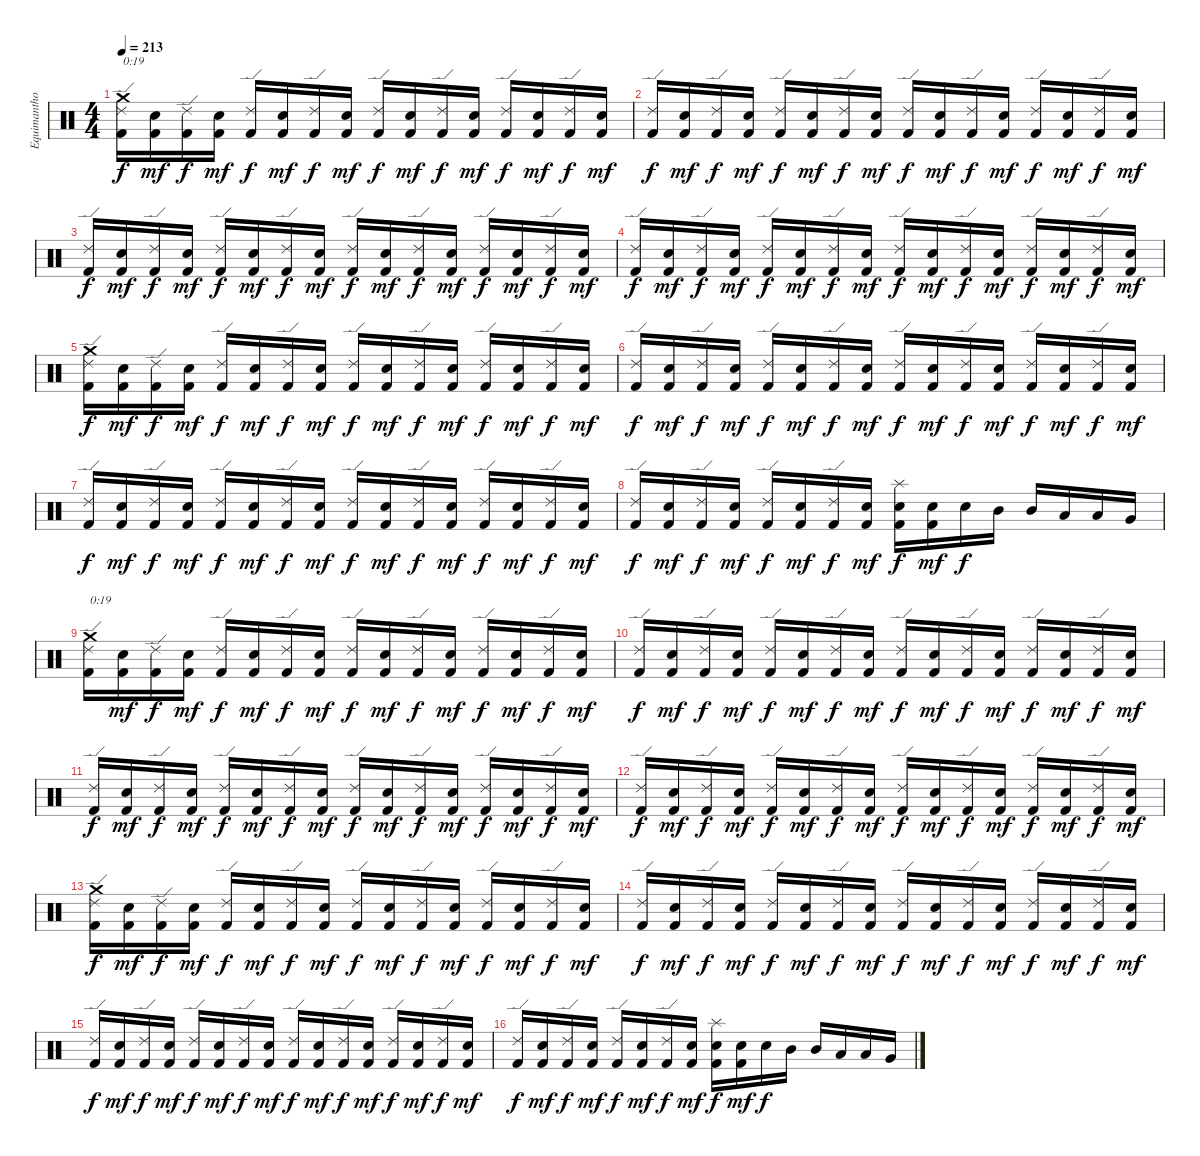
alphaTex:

\track ("Equimanthorn" "Equimantho") {instrument percussion}
\staff {score}
\articulation defaults
\ts (4 4)
\tempo 213
\clef neutral
\ks c
("Kick (hit) 2" "Ride (edge) 2" "Crash medium (hit)").16{txt "0:19" dy f} ("Kick (hit) 2" "Electric Snare (hit)").16{dy mf} ("Kick (hit) 2" "Ride (edge) 2").16{dy f} ("Kick (hit) 2" "Electric Snare (hit)").16{dy mf} ("Kick (hit) 2" "Ride (edge) 2").16{dy f} ("Kick (hit) 2" "Electric Snare (hit)").16{dy mf} ("Kick (hit) 2" "Ride (edge) 2").16{dy f} ("Kick (hit) 2" "Electric Snare (hit)").16{dy mf} ("Kick (hit) 2" "Ride (edge) 2").16{dy f} ("Kick (hit) 2" "Electric Snare (hit)").16{dy mf} ("Kick (hit) 2" "Ride (edge) 2").16{dy f} ("Kick (hit) 2" "Electric Snare (hit)").16{dy mf} ("Kick (hit) 2" "Ride (edge) 2").16{dy f} ("Kick (hit) 2" "Electric Snare (hit)").16{dy mf} ("Kick (hit) 2" "Ride (edge) 2").16{dy f} ("Kick (hit) 2" "Electric Snare (hit)").16{dy mf} |
("Kick (hit) 2" "Ride (edge) 2").16{dy f} ("Kick (hit) 2" "Electric Snare (hit)").16{dy mf} ("Kick (hit) 2" "Ride (edge) 2").16{dy f} ("Kick (hit) 2" "Electric Snare (hit)").16{dy mf} ("Kick (hit) 2" "Ride (edge) 2").16{dy f} ("Kick (hit) 2" "Electric Snare (hit)").16{dy mf} ("Kick (hit) 2" "Ride (edge) 2").16{dy f} ("Kick (hit) 2" "Electric Snare (hit)").16{dy mf} ("Kick (hit) 2" "Ride (edge) 2").16{dy f} ("Kick (hit) 2" "Electric Snare (hit)").16{dy mf} ("Kick (hit) 2" "Ride (edge) 2").16{dy f} ("Kick (hit) 2" "Electric Snare (hit)").16{dy mf} ("Kick (hit) 2" "Ride (edge) 2").16{dy f} ("Kick (hit) 2" "Electric Snare (hit)").16{dy mf} ("Kick (hit) 2" "Ride (edge) 2").16{dy f} ("Kick (hit) 2" "Electric Snare (hit)").16{dy mf} |
("Kick (hit) 2" "Ride (edge) 2").16{dy f} ("Kick (hit) 2" "Electric Snare (hit)").16{dy mf} ("Kick (hit) 2" "Ride (edge) 2").16{dy f} ("Kick (hit) 2" "Electric Snare (hit)").16{dy mf} ("Kick (hit) 2" "Ride (edge) 2").16{dy f} ("Kick (hit) 2" "Electric Snare (hit)").16{dy mf} ("Kick (hit) 2" "Ride (edge) 2").16{dy f} ("Kick (hit) 2" "Electric Snare (hit)").16{dy mf} ("Kick (hit) 2" "Ride (edge) 2").16{dy f} ("Kick (hit) 2" "Electric Snare (hit)").16{dy mf} ("Kick (hit) 2" "Ride (edge) 2").16{dy f} ("Kick (hit) 2" "Electric Snare (hit)").16{dy mf} ("Kick (hit) 2" "Ride (edge) 2").16{dy f} ("Kick (hit) 2" "Electric Snare (hit)").16{dy mf} ("Kick (hit) 2" "Ride (edge) 2").16{dy f} ("Kick (hit) 2" "Electric Snare (hit)").16{dy mf} |
("Kick (hit) 2" "Ride (edge) 2").16{dy f} ("Kick (hit) 2" "Electric Snare (hit)").16{dy mf} ("Kick (hit) 2" "Ride (edge) 2").16{dy f} ("Kick (hit) 2" "Electric Snare (hit)").16{dy mf} ("Kick (hit) 2" "Ride (edge) 2").16{dy f} ("Kick (hit) 2" "Electric Snare (hit)").16{dy mf} ("Kick (hit) 2" "Ride (edge) 2").16{dy f} ("Kick (hit) 2" "Electric Snare (hit)").16{dy mf} ("Kick (hit) 2" "Ride (edge) 2").16{dy f} ("Kick (hit) 2" "Electric Snare (hit)").16{dy mf} ("Kick (hit) 2" "Ride (edge) 2").16{dy f} ("Kick (hit) 2" "Electric Snare (hit)").16{dy mf} ("Kick (hit) 2" "Ride (edge) 2").16{dy f} ("Kick (hit) 2" "Electric Snare (hit)").16{dy mf} ("Kick (hit) 2" "Ride (edge) 2").16{dy f} ("Kick (hit) 2" "Electric Snare (hit)").16{dy mf} |
("Kick (hit) 2" "Ride (edge) 2" "Crash medium (hit)").16{dy f} ("Kick (hit) 2" "Electric Snare (hit)").16{dy mf} ("Kick (hit) 2" "Ride (edge) 2").16{dy f} ("Kick (hit) 2" "Electric Snare (hit)").16{dy mf} ("Kick (hit) 2" "Ride (edge) 2").16{dy f} ("Kick (hit) 2" "Electric Snare (hit)").16{dy mf} ("Kick (hit) 2" "Ride (edge) 2").16{dy f} ("Kick (hit) 2" "Electric Snare (hit)").16{dy mf} ("Kick (hit) 2" "Ride (edge) 2").16{dy f} ("Kick (hit) 2" "Electric Snare (hit)").16{dy mf} ("Kick (hit) 2" "Ride (edge) 2").16{dy f} ("Kick (hit) 2" "Electric Snare (hit)").16{dy mf} ("Kick (hit) 2" "Ride (edge) 2").16{dy f} ("Kick (hit) 2" "Electric Snare (hit)").16{dy mf} ("Kick (hit) 2" "Ride (edge) 2").16{dy f} ("Kick (hit) 2" "Electric Snare (hit)").16{dy mf} |
("Kick (hit) 2" "Ride (edge) 2").16{dy f} ("Kick (hit) 2" "Electric Snare (hit)").16{dy mf} ("Kick (hit) 2" "Ride (edge) 2").16{dy f} ("Kick (hit) 2" "Electric Snare (hit)").16{dy mf} ("Kick (hit) 2" "Ride (edge) 2").16{dy f} ("Kick (hit) 2" "Electric Snare (hit)").16{dy mf} ("Kick (hit) 2" "Ride (edge) 2").16{dy f} ("Kick (hit) 2" "Electric Snare (hit)").16{dy mf} ("Kick (hit) 2" "Ride (edge) 2").16{dy f} ("Kick (hit) 2" "Electric Snare (hit)").16{dy mf} ("Kick (hit) 2" "Ride (edge) 2").16{dy f} ("Kick (hit) 2" "Electric Snare (hit)").16{dy mf} ("Kick (hit) 2" "Ride (edge) 2").16{dy f} ("Kick (hit) 2" "Electric Snare (hit)").16{dy mf} ("Kick (hit) 2" "Ride (edge) 2").16{dy f} ("Kick (hit) 2" "Electric Snare (hit)").16{dy mf} |
("Kick (hit) 2" "Ride (edge) 2").16{dy f} ("Kick (hit) 2" "Electric Snare (hit)").16{dy mf} ("Kick (hit) 2" "Ride (edge) 2").16{dy f} ("Kick (hit) 2" "Electric Snare (hit)").16{dy mf} ("Kick (hit) 2" "Ride (edge) 2").16{dy f} ("Kick (hit) 2" "Electric Snare (hit)").16{dy mf} ("Kick (hit) 2" "Ride (edge) 2").16{dy f} ("Kick (hit) 2" "Electric Snare (hit)").16{dy mf} ("Kick (hit) 2" "Ride (edge) 2").16{dy f} ("Kick (hit) 2" "Electric Snare (hit)").16{dy mf} ("Kick (hit) 2" "Ride (edge) 2").16{dy f} ("Kick (hit) 2" "Electric Snare (hit)").16{dy mf} ("Kick (hit) 2" "Ride (edge) 2").16{dy f} ("Kick (hit) 2" "Electric Snare (hit)").16{dy mf} ("Kick (hit) 2" "Ride (edge) 2").16{dy f} ("Kick (hit) 2" "Electric Snare (hit)").16{dy mf} |
("Kick (hit) 2" "Ride (edge) 2").16{dy f} ("Kick (hit) 2" "Electric Snare (hit)").16{dy mf} ("Kick (hit) 2" "Ride (edge) 2").16{dy f} ("Kick (hit) 2" "Electric Snare (hit)").16{dy mf} ("Kick (hit) 2" "Ride (edge) 2").16{dy f} ("Kick (hit) 2" "Electric Snare (hit)").16{dy mf} ("Kick (hit) 2" "Ride (edge) 2").16{dy f} ("Kick (hit) 2" "Electric Snare (hit)").16{dy mf} ("Kick (hit) 2" "Electric Snare (hit)" "Splash (hit)").16{dy f} ("Kick (hit) 2" "Electric Snare (hit)").16{dy mf} "Electric Snare (hit)".16{dy f} "Mid Tom (hit)".16 "Mid Tom (hit)".16 "Low Tom (hit)".16 "Low Tom (hit)".16 "Very Low Tom (hit)".16 |
("Kick (hit) 2" "Ride (edge) 2" "Crash medium (hit)").16{txt "0:19"} ("Kick (hit) 2" "Electric Snare (hit)").16{dy mf} ("Kick (hit) 2" "Ride (edge) 2").16{dy f} ("Kick (hit) 2" "Electric Snare (hit)").16{dy mf} ("Kick (hit) 2" "Ride (edge) 2").16{dy f} ("Kick (hit) 2" "Electric Snare (hit)").16{dy mf} ("Kick (hit) 2" "Ride (edge) 2").16{dy f} ("Kick (hit) 2" "Electric Snare (hit)").16{dy mf} ("Kick (hit) 2" "Ride (edge) 2").16{dy f} ("Kick (hit) 2" "Electric Snare (hit)").16{dy mf} ("Kick (hit) 2" "Ride (edge) 2").16{dy f} ("Kick (hit) 2" "Electric Snare (hit)").16{dy mf} ("Kick (hit) 2" "Ride (edge) 2").16{dy f} ("Kick (hit) 2" "Electric Snare (hit)").16{dy mf} ("Kick (hit) 2" "Ride (edge) 2").16{dy f} ("Kick (hit) 2" "Electric Snare (hit)").16{dy mf} |
("Kick (hit) 2" "Ride (edge) 2").16{dy f} ("Kick (hit) 2" "Electric Snare (hit)").16{dy mf} ("Kick (hit) 2" "Ride (edge) 2").16{dy f} ("Kick (hit) 2" "Electric Snare (hit)").16{dy mf} ("Kick (hit) 2" "Ride (edge) 2").16{dy f} ("Kick (hit) 2" "Electric Snare (hit)").16{dy mf} ("Kick (hit) 2" "Ride (edge) 2").16{dy f} ("Kick (hit) 2" "Electric Snare (hit)").16{dy mf} ("Kick (hit) 2" "Ride (edge) 2").16{dy f} ("Kick (hit) 2" "Electric Snare (hit)").16{dy mf} ("Kick (hit) 2" "Ride (edge) 2").16{dy f} ("Kick (hit) 2" "Electric Snare (hit)").16{dy mf} ("Kick (hit) 2" "Ride (edge) 2").16{dy f} ("Kick (hit) 2" "Electric Snare (hit)").16{dy mf} ("Kick (hit) 2" "Ride (edge) 2").16{dy f} ("Kick (hit) 2" "Electric Snare (hit)").16{dy mf} |
("Kick (hit) 2" "Ride (edge) 2").16{dy f} ("Kick (hit) 2" "Electric Snare (hit)").16{dy mf} ("Kick (hit) 2" "Ride (edge) 2").16{dy f} ("Kick (hit) 2" "Electric Snare (hit)").16{dy mf} ("Kick (hit) 2" "Ride (edge) 2").16{dy f} ("Kick (hit) 2" "Electric Snare (hit)").16{dy mf} ("Kick (hit) 2" "Ride (edge) 2").16{dy f} ("Kick (hit) 2" "Electric Snare (hit)").16{dy mf} ("Kick (hit) 2" "Ride (edge) 2").16{dy f} ("Kick (hit) 2" "Electric Snare (hit)").16{dy mf} ("Kick (hit) 2" "Ride (edge) 2").16{dy f} ("Kick (hit) 2" "Electric Snare (hit)").16{dy mf} ("Kick (hit) 2" "Ride (edge) 2").16{dy f} ("Kick (hit) 2" "Electric Snare (hit)").16{dy mf} ("Kick (hit) 2" "Ride (edge) 2").16{dy f} ("Kick (hit) 2" "Electric Snare (hit)").16{dy mf} |
("Kick (hit) 2" "Ride (edge) 2").16{dy f} ("Kick (hit) 2" "Electric Snare (hit)").16{dy mf} ("Kick (hit) 2" "Ride (edge) 2").16{dy f} ("Kick (hit) 2" "Electric Snare (hit)").16{dy mf} ("Kick (hit) 2" "Ride (edge) 2").16{dy f} ("Kick (hit) 2" "Electric Snare (hit)").16{dy mf} ("Kick (hit) 2" "Ride (edge) 2").16{dy f} ("Kick (hit) 2" "Electric Snare (hit)").16{dy mf} ("Kick (hit) 2" "Ride (edge) 2").16{dy f} ("Kick (hit) 2" "Electric Snare (hit)").16{dy mf} ("Kick (hit) 2" "Ride (edge) 2").16{dy f} ("Kick (hit) 2" "Electric Snare (hit)").16{dy mf} ("Kick (hit) 2" "Ride (edge) 2").16{dy f} ("Kick (hit) 2" "Electric Snare (hit)").16{dy mf} ("Kick (hit) 2" "Ride (edge) 2").16{dy f} ("Kick (hit) 2" "Electric Snare (hit)").16{dy mf} |
("Kick (hit) 2" "Ride (edge) 2" "Crash medium (hit)").16{dy f} ("Kick (hit) 2" "Electric Snare (hit)").16{dy mf} ("Kick (hit) 2" "Ride (edge) 2").16{dy f} ("Kick (hit) 2" "Electric Snare (hit)").16{dy mf} ("Kick (hit) 2" "Ride (edge) 2").16{dy f} ("Kick (hit) 2" "Electric Snare (hit)").16{dy mf} ("Kick (hit) 2" "Ride (edge) 2").16{dy f} ("Kick (hit) 2" "Electric Snare (hit)").16{dy mf} ("Kick (hit) 2" "Ride (edge) 2").16{dy f} ("Kick (hit) 2" "Electric Snare (hit)").16{dy mf} ("Kick (hit) 2" "Ride (edge) 2").16{dy f} ("Kick (hit) 2" "Electric Snare (hit)").16{dy mf} ("Kick (hit) 2" "Ride (edge) 2").16{dy f} ("Kick (hit) 2" "Electric Snare (hit)").16{dy mf} ("Kick (hit) 2" "Ride (edge) 2").16{dy f} ("Kick (hit) 2" "Electric Snare (hit)").16{dy mf} |
("Kick (hit) 2" "Ride (edge) 2").16{dy f} ("Kick (hit) 2" "Electric Snare (hit)").16{dy mf} ("Kick (hit) 2" "Ride (edge) 2").16{dy f} ("Kick (hit) 2" "Electric Snare (hit)").16{dy mf} ("Kick (hit) 2" "Ride (edge) 2").16{dy f} ("Kick (hit) 2" "Electric Snare (hit)").16{dy mf} ("Kick (hit) 2" "Ride (edge) 2").16{dy f} ("Kick (hit) 2" "Electric Snare (hit)").16{dy mf} ("Kick (hit) 2" "Ride (edge) 2").16{dy f} ("Kick (hit) 2" "Electric Snare (hit)").16{dy mf} ("Kick (hit) 2" "Ride (edge) 2").16{dy f} ("Kick (hit) 2" "Electric Snare (hit)").16{dy mf} ("Kick (hit) 2" "Ride (edge) 2").16{dy f} ("Kick (hit) 2" "Electric Snare (hit)").16{dy mf} ("Kick (hit) 2" "Ride (edge) 2").16{dy f} ("Kick (hit) 2" "Electric Snare (hit)").16{dy mf} |
("Kick (hit) 2" "Ride (edge) 2").16{dy f} ("Kick (hit) 2" "Electric Snare (hit)").16{dy mf} ("Kick (hit) 2" "Ride (edge) 2").16{dy f} ("Kick (hit) 2" "Electric Snare (hit)").16{dy mf} ("Kick (hit) 2" "Ride (edge) 2").16{dy f} ("Kick (hit) 2" "Electric Snare (hit)").16{dy mf} ("Kick (hit) 2" "Ride (edge) 2").16{dy f} ("Kick (hit) 2" "Electric Snare (hit)").16{dy mf} ("Kick (hit) 2" "Ride (edge) 2").16{dy f} ("Kick (hit) 2" "Electric Snare (hit)").16{dy mf} ("Kick (hit) 2" "Ride (edge) 2").16{dy f} ("Kick (hit) 2" "Electric Snare (hit)").16{dy mf} ("Kick (hit) 2" "Ride (edge) 2").16{dy f} ("Kick (hit) 2" "Electric Snare (hit)").16{dy mf} ("Kick (hit) 2" "Ride (edge) 2").16{dy f} ("Kick (hit) 2" "Electric Snare (hit)").16{dy mf} |
("Kick (hit) 2" "Ride (edge) 2").16{dy f} ("Kick (hit) 2" "Electric Snare (hit)").16{dy mf} ("Kick (hit) 2" "Ride (edge) 2").16{dy f} ("Kick (hit) 2" "Electric Snare (hit)").16{dy mf} ("Kick (hit) 2" "Ride (edge) 2").16{dy f} ("Kick (hit) 2" "Electric Snare (hit)").16{dy mf} ("Kick (hit) 2" "Ride (edge) 2").16{dy f} ("Kick (hit) 2" "Electric Snare (hit)").16{dy mf} ("Kick (hit) 2" "Electric Snare (hit)" "Splash (hit)").16{dy f} ("Kick (hit) 2" "Electric Snare (hit)").16{dy mf} "Electric Snare (hit)".16{dy f} "Mid Tom (hit)".16 "Mid Tom (hit)".16 "Low Tom (hit)".16 "Low Tom (hit)".16 "Very Low Tom (hit)".16
